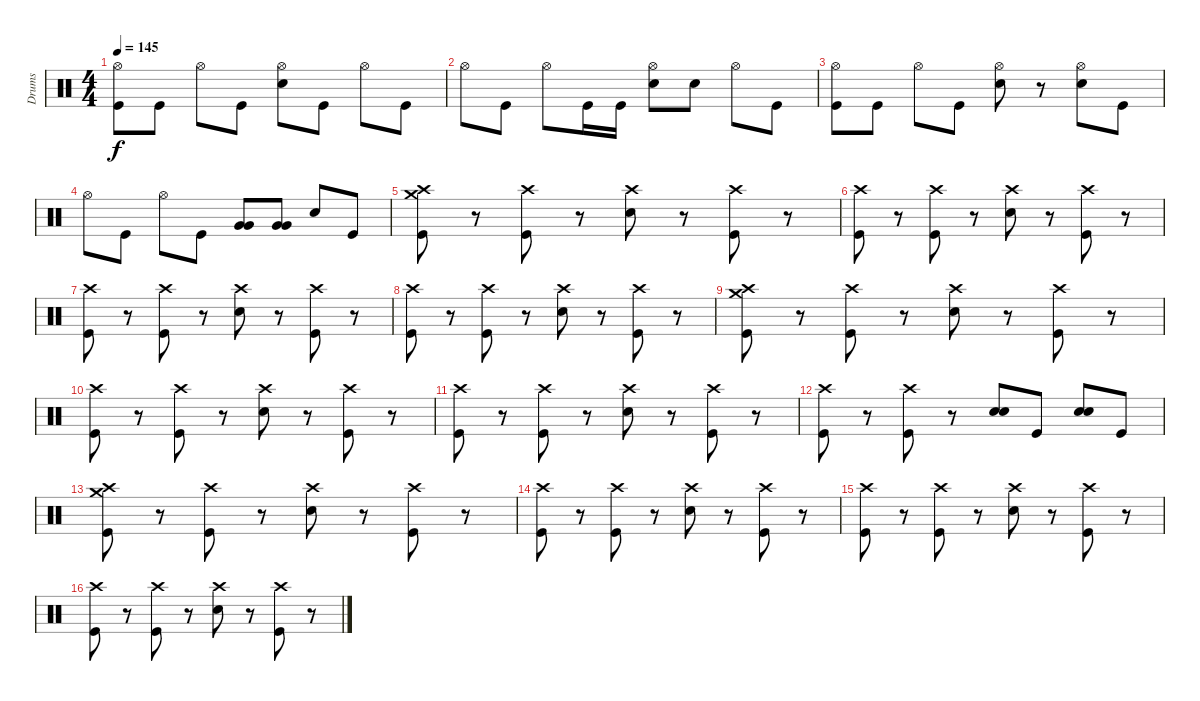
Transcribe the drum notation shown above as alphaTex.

\track ("Drums" "Drums") {instrument percussion}
\staff {score}
\articulation defaults
\ts (4 4)
\tempo 145
\clef neutral
\ks c
("Hi-Hat (open)" "Kick (hit)").8{dy f} "Kick (hit)".8 "Hi-Hat (open)".8 "Kick (hit)".8 ("Hi-Hat (open)" "Snare (hit) 2").8 "Kick (hit)".8 "Hi-Hat (open)".8 "Kick (hit)".8 |
"Hi-Hat (open)".8 "Kick (hit)".8 "Hi-Hat (open)".8 "Kick (hit)".16 "Kick (hit)".16 ("Hi-Hat (open)" "Snare (hit) 2").8 "Snare (hit) 2".8 "Hi-Hat (open)".8 "Kick (hit)".8 |
("Hi-Hat (open)" "Kick (hit)").8 "Kick (hit)".8 "Hi-Hat (open)".8 "Kick (hit)".8 ("Hi-Hat (open)" "Snare (hit) 2").8 r.8 ("Hi-Hat (open)" "Snare (hit) 2").8 "Kick (hit)".8 |
"Hi-Hat (open)".8 "Kick (hit)".8 "Hi-Hat (open)".8 "Kick (hit)".8 ("Very Low Tom (hit)" "Very Low Tom (hit)").8 ("Very Low Tom (hit)" "Very Low Tom (hit)").8 "Snare (hit) 2".8 "Kick (hit)".8 |
("Crash medium (hit)" "Crash high (hit)" "Kick (hit)").8 r.8 ("Crash high (hit)" "Kick (hit)").8 r.8 ("Crash high (hit)" "Snare (hit) 2").8 r.8 ("Crash high (hit)" "Kick (hit)").8 r.8 |
("Crash high (hit)" "Kick (hit)").8 r.8 ("Crash high (hit)" "Kick (hit)").8 r.8 ("Crash high (hit)" "Snare (hit) 2").8 r.8 ("Crash high (hit)" "Kick (hit)").8 r.8 |
("Crash high (hit)" "Kick (hit)").8 r.8 ("Crash high (hit)" "Kick (hit)").8 r.8 ("Crash high (hit)" "Snare (hit) 2").8 r.8 ("Crash high (hit)" "Kick (hit)").8 r.8 |
("Crash high (hit)" "Kick (hit)").8 r.8 ("Crash high (hit)" "Kick (hit)").8 r.8 ("Crash high (hit)" "Snare (hit) 2").8 r.8 ("Crash high (hit)" "Kick (hit)").8 r.8 |
("Crash medium (hit)" "Crash high (hit)" "Kick (hit)").8 r.8 ("Crash high (hit)" "Kick (hit)").8 r.8 ("Crash high (hit)" "Snare (hit) 2").8 r.8 ("Crash high (hit)" "Kick (hit)").8 r.8 |
("Crash high (hit)" "Kick (hit)").8 r.8 ("Crash high (hit)" "Kick (hit)").8 r.8 ("Crash high (hit)" "Snare (hit) 2").8 r.8 ("Crash high (hit)" "Kick (hit)").8 r.8 |
("Crash high (hit)" "Kick (hit)").8 r.8 ("Crash high (hit)" "Kick (hit)").8 r.8 ("Crash high (hit)" "Snare (hit) 2").8 r.8 ("Crash high (hit)" "Kick (hit)").8 r.8 |
("Crash high (hit)" "Kick (hit)").8 r.8 ("Crash high (hit)" "Kick (hit)").8 r.8 ("Snare (hit) 2" "Snare (hit) 2").8 "Kick (hit)".8 ("Snare (hit) 2" "Snare (hit) 2").8 "Kick (hit)".8 |
("Crash medium (hit)" "Crash high (hit)" "Kick (hit)").8 r.8 ("Crash high (hit)" "Kick (hit)").8 r.8 ("Crash high (hit)" "Snare (hit) 2").8 r.8 ("Crash high (hit)" "Kick (hit)").8 r.8 |
("Crash high (hit)" "Kick (hit)").8 r.8 ("Crash high (hit)" "Kick (hit)").8 r.8 ("Crash high (hit)" "Snare (hit) 2").8 r.8 ("Crash high (hit)" "Kick (hit)").8 r.8 |
("Crash high (hit)" "Kick (hit)").8 r.8 ("Crash high (hit)" "Kick (hit)").8 r.8 ("Crash high (hit)" "Snare (hit) 2").8 r.8 ("Crash high (hit)" "Kick (hit)").8 r.8 |
("Crash high (hit)" "Kick (hit)").8 r.8 ("Crash high (hit)" "Kick (hit)").8 r.8 ("Crash high (hit)" "Snare (hit) 2").8 r.8 ("Crash high (hit)" "Kick (hit)").8 r.8
